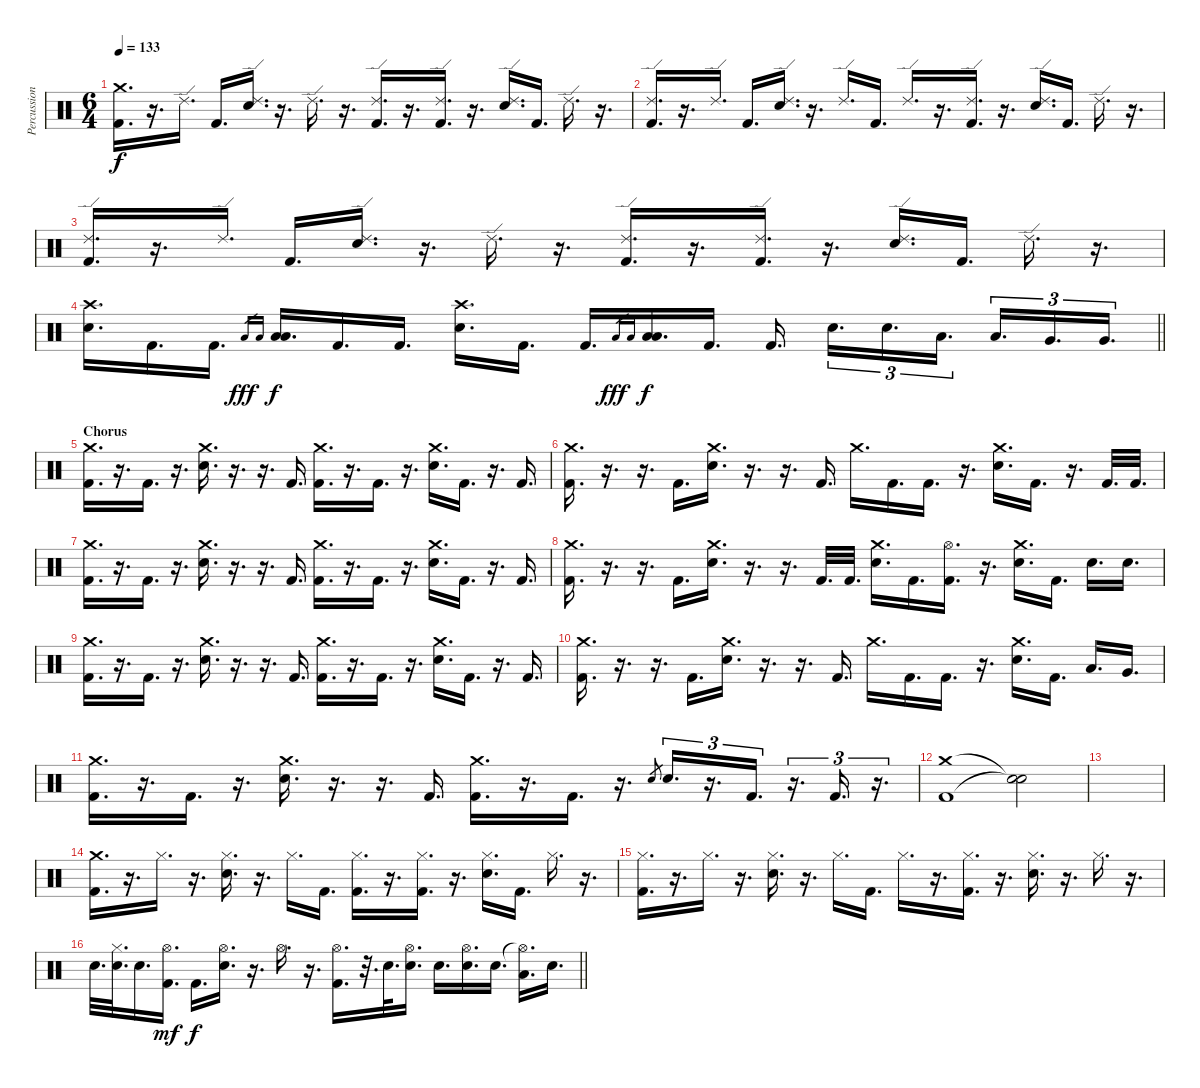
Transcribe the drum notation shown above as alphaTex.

\track ("Percussion" "Percussion") {instrument percussion}
\staff {score}
\articulation defaults
\ts (6 4)
\tempo 133
\clef neutral
\ks c
("Crash medium (hit)" "Kick (hit) 2").16{d dy f} r.16{d} "Ride (edge) 2".16{d} "Kick (hit) 2".16{d} ("Ride (edge) 2" "Electric Snare (hit)").16{d} r.16{d} "Ride (edge) 2".16{d} r.16{d} ("Ride (edge) 2" "Kick (hit) 2").16{d} r.16{d} ("Ride (edge) 2" "Kick (hit) 2").16{d} r.16{d} ("Ride (edge) 2" "Electric Snare (hit)").16{d} "Kick (hit) 2".16{d} "Ride (edge) 2".16{d} r.16{d} |
("Ride (edge) 2" "Kick (hit) 2").16{d} r.16{d} "Ride (edge) 2".16{d} "Kick (hit) 2".16{d} ("Ride (edge) 2" "Electric Snare (hit)").16{d} r.16{d} "Ride (edge) 2".16{d} "Kick (hit) 2".16{d} "Ride (edge) 2".16{d} r.16{d} ("Ride (edge) 2" "Kick (hit) 2").16{d} r.16{d} ("Ride (edge) 2" "Electric Snare (hit)").16{d} "Kick (hit) 2".16{d} "Ride (edge) 2".16{d} r.16{d} |
("Ride (edge) 2" "Kick (hit) 2").16{d} r.16{d} "Ride (edge) 2".16{d} "Kick (hit) 2".16{d} ("Ride (edge) 2" "Electric Snare (hit)").16{d} r.16{d} "Ride (edge) 2".16{d} r.16{d} ("Ride (edge) 2" "Kick (hit) 2").16{d} r.16{d} ("Ride (edge) 2" "Kick (hit) 2").16{d} r.16{d} ("Ride (edge) 2" "Electric Snare (hit)").16{d} "Kick (hit) 2".16{d} "Ride (edge) 2".16{d} r.16{d} |
\barLineRight lightlight
("Crash high (hit)" "Electric Snare (hit)").16{d} "Kick (hit) 2".16{d} "Kick (hit) 2".16{d} "Low Tom (hit)".16{gr dy fff} "Low Tom (hit)".16{gr} ("Low Tom (hit)" "Low Tom (hit)").16{d dy f} "Kick (hit) 2".16{d} "Kick (hit) 2".16{d} ("Crash high (hit)" "Electric Snare (hit)").16{d} "Kick (hit) 2".16{d} "Kick (hit) 2".16{d} "Low Tom (hit)".16{gr dy fff} "Low Tom (hit)".16{gr} ("Low Tom (hit)" "Low Tom (hit)").16{d dy f} "Kick (hit) 2".16{d} "Kick (hit) 2".16{d beam splitsecondary} "Electric Snare (hit)".16{d tu (3 2)} "Electric Snare (hit)".16{d tu (3 2)} "Low Tom (hit)".16{d tu (3 2)} "Low Tom (hit)".16{d tu (3 2)} "Very Low Tom (hit)".16{d tu (3 2)} "Very Low Tom (hit)".16{d tu (3 2)} |
\section ("" "Chorus")
("Crash medium (hit)" "Kick (hit) 2").16{d} r.16{d} "Kick (hit) 2".16{d} r.16{d} ("Crash medium (hit)" "Electric Snare (hit)").16{d} r.16{d} r.16{d} "Kick (hit) 2".16{d} ("Crash medium (hit)" "Kick (hit) 2").16{d} r.16{d} "Kick (hit) 2".16{d} r.16{d} ("Crash medium (hit)" "Electric Snare (hit)").16{d} "Kick (hit) 2".16{d} r.16{d} "Kick (hit) 2".16{d} |
("Crash medium (hit)" "Kick (hit) 2").16{d} r.16{d} r.16{d} "Kick (hit) 2".16{d} ("Crash medium (hit)" "Electric Snare (hit)").16{d} r.16{d} r.16{d} "Kick (hit) 2".16{d} "Crash medium (hit)".16{d} "Kick (hit) 2".16{d} "Kick (hit) 2".16{d} r.16{d} ("Crash medium (hit)" "Electric Snare (hit)").16{d} "Kick (hit) 2".16{d} r.16{d} "Kick (hit) 2".32{d} "Kick (hit) 2".32{d} |
("Crash medium (hit)" "Kick (hit) 2").16{d} r.16{d} "Kick (hit) 2".16{d} r.16{d} ("Crash medium (hit)" "Electric Snare (hit)").16{d} r.16{d} r.16{d} "Kick (hit) 2".16{d} ("Crash medium (hit)" "Kick (hit) 2").16{d} r.16{d} "Kick (hit) 2".16{d} r.16{d} ("Crash medium (hit)" "Electric Snare (hit)").16{d} "Kick (hit) 2".16{d} r.16{d} "Kick (hit) 2".16{d} |
("Crash medium (hit)" "Kick (hit) 2").16{d} r.16{d} r.16{d} "Kick (hit) 2".16{d} ("Crash medium (hit)" "Electric Snare (hit)").16{d} r.16{d} r.16{d} "Kick (hit) 2".32{d} "Kick (hit) 2".32{d} ("Crash medium (hit)" "Electric Snare (hit)").16{d} "Kick (hit) 2".16{d} ("Hi-Hat (open)" "Kick (hit) 2").16{d} r.16{d} ("Crash medium (hit)" "Electric Snare (hit)").16{d} "Kick (hit) 2".16{d} "Electric Snare (hit)".16{d} "Electric Snare (hit)".16{d} |
("Crash medium (hit)" "Kick (hit) 2").16{d} r.16{d} "Kick (hit) 2".16{d} r.16{d} ("Crash medium (hit)" "Electric Snare (hit)").16{d} r.16{d} r.16{d} "Kick (hit) 2".16{d} ("Crash medium (hit)" "Kick (hit) 2").16{d} r.16{d} "Kick (hit) 2".16{d} r.16{d} ("Crash medium (hit)" "Electric Snare (hit)").16{d} "Kick (hit) 2".16{d} r.16{d} "Kick (hit) 2".16{d} |
("Crash medium (hit)" "Kick (hit) 2").16{d} r.16{d} r.16{d} "Kick (hit) 2".16{d} ("Crash medium (hit)" "Electric Snare (hit)").16{d} r.16{d} r.16{d} "Kick (hit) 2".16{d} "Crash medium (hit)".16{d} "Kick (hit) 2".16{d} "Kick (hit) 2".16{d} r.16{d} ("Crash medium (hit)" "Electric Snare (hit)").16{d} "Kick (hit) 2".16{d} "Low Tom (hit)".16{d} "Very Low Tom (hit)".16{d} |
("Crash medium (hit)" "Kick (hit) 2").16{d} r.16{d} "Kick (hit) 2".16{d} r.16{d} ("Crash medium (hit)" "Electric Snare (hit)").16{d} r.16{d} r.16{d} "Kick (hit) 2".16{d} ("Crash medium (hit)" "Kick (hit) 2").16{d} r.16{d} "Kick (hit) 2".16{d} r.16{d} "Electric Snare (hit)".8{gr} "Electric Snare (hit)".16{d tu (3 2)} r.16{d tu (3 2)} "Kick (hit) 2".16{d tu (3 2)} r.16{d tu (3 2)} "Kick (hit) 2".16{d tu (3 2)} r.16{d tu (3 2)} |
("Crash medium (hit)" "Kick (hit) 2").1 ("Snare (hit)"{t} "Snare (hit)"{t}).2 |
|
("Crash medium (hit)" "Kick (hit) 2").16{d} r.16{d} "Hi-Hat (closed)".16{d} r.16{d} ("Hi-Hat (closed)" "Electric Snare (hit)").16{d} r.16{d} "Hi-Hat (closed)".16{d} "Kick (hit) 2".16{d} ("Hi-Hat (closed)" "Kick (hit) 2").16{d} r.16{d} ("Hi-Hat (closed)" "Kick (hit) 2").16{d} r.16{d} ("Hi-Hat (closed)" "Electric Snare (hit)").16{d} "Kick (hit) 2".16{d} "Hi-Hat (closed)".16{d} r.16{d} |
("Hi-Hat (closed)" "Kick (hit) 2").16{d} r.16{d} "Hi-Hat (closed)".16{d} r.16{d} ("Hi-Hat (closed)" "Electric Snare (hit)").16{d} r.16{d} "Hi-Hat (closed)".16{d} "Kick (hit) 2".16{d} "Hi-Hat (closed)".16{d} r.16{d} ("Hi-Hat (closed)" "Kick (hit) 2").16{d} r.16{d} ("Hi-Hat (closed)" "Electric Snare (hit)").16{d} r.16{d} "Hi-Hat (closed)".16{d} r.16{d} |
\barLineRight lightlight "Electric Snare (hit)".32{d}
("Hi-Hat (closed)" "Electric Snare (hit)").32{d} "Electric Snare (hit)".16{d} ("Hi-Hat (open)" "Kick (hit) 2").16{d dy mf} "Kick (hit) 2".16{d dy f} ("Hi-Hat (open)" "Electric Snare (hit)").16{d} r.16{d} "Hi-Hat (open)".16{d} r.16{d} ("Hi-Hat (open)" "Kick (hit) 2").16{d} r.32{d} "Electric Snare (hit)".32{d} ("Hi-Hat (open)" "Electric Snare (hit)").16{d} "Electric Snare (hit)".16{d} ("Hi-Hat (open)" "Electric Snare (hit)").16{d} "Electric Snare (hit)".16{d} ("Hi-Hat (open)"{t} "Low Tom (hit)").16{d} "Electric Snare (hit)".16{d}
